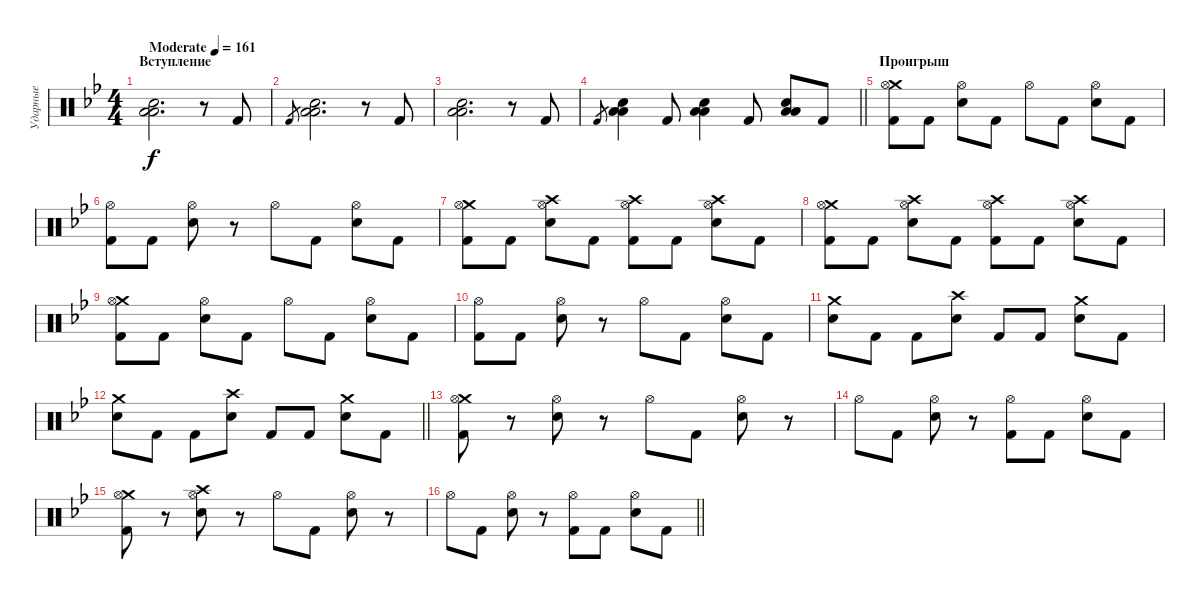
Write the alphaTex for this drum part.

\track ("Ударные" "Ударные") {instrument percussion}
\staff {score}
\articulation defaults
\ts (4 4)
\section ("" "Вступление")
\tempo (161 "Moderate")
\clef neutral
\ks gminor
("Electric Snare (hit)" "Low Tom (hit)" "Low Floor Tom (hit)").2{d dy f} r.8 "Kick (hit) 2".8 |
"Kick (hit) 2".8{gr} ("Electric Snare (hit)" "Low Tom (hit)" "Low Floor Tom (hit)").2{d} r.8 "Kick (hit) 2".8 |
("Electric Snare (hit)" "Low Tom (hit)" "Low Floor Tom (hit)").2{d} r.8 "Kick (hit) 2".8 |
\barLineRight lightlight "Kick (hit) 2".8{gr}
("Electric Snare (hit)" "Low Tom (hit)" "Low Floor Tom (hit)").4 "Kick (hit) 2".8 ("Electric Snare (hit)" "Low Tom (hit)" "Low Floor Tom (hit)").4 "Kick (hit) 2".8 ("Electric Snare (hit)" "Low Tom (hit)" "Low Floor Tom (hit)").8 "Kick (hit) 2".8 |
\section ("" "Проигрыш")
("Crash medium (hit)" "Kick (hit) 2" "Hi-Hat (open)").8 "Kick (hit) 2".8 ("Electric Snare (hit)" "Hi-Hat (open)").8 "Kick (hit) 2".8 "Hi-Hat (open)".8 "Kick (hit) 2".8 ("Electric Snare (hit)" "Hi-Hat (open)").8 "Kick (hit) 2".8 |
("Kick (hit) 2" "Hi-Hat (open)").8 "Kick (hit) 2".8 ("Electric Snare (hit)" "Hi-Hat (open)").8 r.8 "Hi-Hat (open)".8 "Kick (hit) 2".8 ("Electric Snare (hit)" "Hi-Hat (open)").8 "Kick (hit) 2".8 |
("Crash medium (hit)" "Kick (hit) 2" "Hi-Hat (open)").8 "Kick (hit) 2".8 ("Crash high (hit)" "Electric Snare (hit)" "Hi-Hat (open)").8 "Kick (hit) 2".8 ("Crash high (hit)" "Kick (hit) 2" "Hi-Hat (open)").8 "Kick (hit) 2".8 ("Crash high (hit)" "Electric Snare (hit)" "Hi-Hat (open)").8 "Kick (hit) 2".8 |
("Crash medium (hit)" "Kick (hit) 2" "Hi-Hat (open)").8 "Kick (hit) 2".8 ("Crash high (hit)" "Electric Snare (hit)" "Hi-Hat (open)").8 "Kick (hit) 2".8 ("Crash high (hit)" "Kick (hit) 2" "Hi-Hat (open)").8 "Kick (hit) 2".8 ("Crash high (hit)" "Electric Snare (hit)" "Hi-Hat (open)").8 "Kick (hit) 2".8 |
("Crash medium (hit)" "Kick (hit) 2" "Hi-Hat (open)").8 "Kick (hit) 2".8 ("Electric Snare (hit)" "Hi-Hat (open)").8 "Kick (hit) 2".8 "Hi-Hat (open)".8 "Kick (hit) 2".8 ("Electric Snare (hit)" "Hi-Hat (open)").8 "Kick (hit) 2".8 |
("Kick (hit) 2" "Hi-Hat (open)").8 "Kick (hit) 2".8 ("Electric Snare (hit)" "Hi-Hat (open)").8 r.8 "Hi-Hat (open)".8 "Kick (hit) 2".8 ("Electric Snare (hit)" "Hi-Hat (open)").8 "Kick (hit) 2".8 |
("Crash medium (hit)" "Electric Snare (hit)").8 "Kick (hit) 2".8 "Kick (hit) 2".8 ("Crash high (hit)" "Electric Snare (hit)").8 "Kick (hit) 2".8 "Kick (hit) 2".8 ("Crash medium (hit)" "Electric Snare (hit)").8 "Kick (hit) 2".8 |
\barLineRight lightlight
("Crash medium (hit)" "Electric Snare (hit)").8 "Kick (hit) 2".8 "Kick (hit) 2".8 ("Crash high (hit)" "Electric Snare (hit)").8 "Kick (hit) 2".8 "Kick (hit) 2".8 ("Crash medium (hit)" "Electric Snare (hit)").8 "Kick (hit) 2".8 |
\section ("" "")
("Crash medium (hit)" "Kick (hit) 2" "Hi-Hat (open)").8 r.8 ("Electric Snare (hit)" "Hi-Hat (open)").8 r.8 "Hi-Hat (open)".8 "Kick (hit) 2".8 ("Electric Snare (hit)" "Hi-Hat (open)").8 r.8 |
"Hi-Hat (open)".8 "Kick (hit) 2".8 ("Electric Snare (hit)" "Hi-Hat (open)").8 r.8 ("Kick (hit) 2" "Hi-Hat (open)").8 "Kick (hit) 2".8 ("Electric Snare (hit)" "Hi-Hat (open)").8 "Kick (hit) 2".8 |
("Crash medium (hit)" "Kick (hit) 2" "Hi-Hat (open)").8 r.8 ("Crash high (hit)" "Electric Snare (hit)" "Hi-Hat (open)").8 r.8 "Hi-Hat (open)".8 "Kick (hit) 2".8 ("Electric Snare (hit)" "Hi-Hat (open)").8 r.8 |
\barLineRight lightlight "Hi-Hat (open)".8 "Kick (hit) 2".8
("Electric Snare (hit)" "Hi-Hat (open)").8 r.8 ("Kick (hit) 2" "Hi-Hat (open)").8 "Kick (hit) 2".8 ("Electric Snare (hit)" "Hi-Hat (open)").8 "Kick (hit) 2".8
